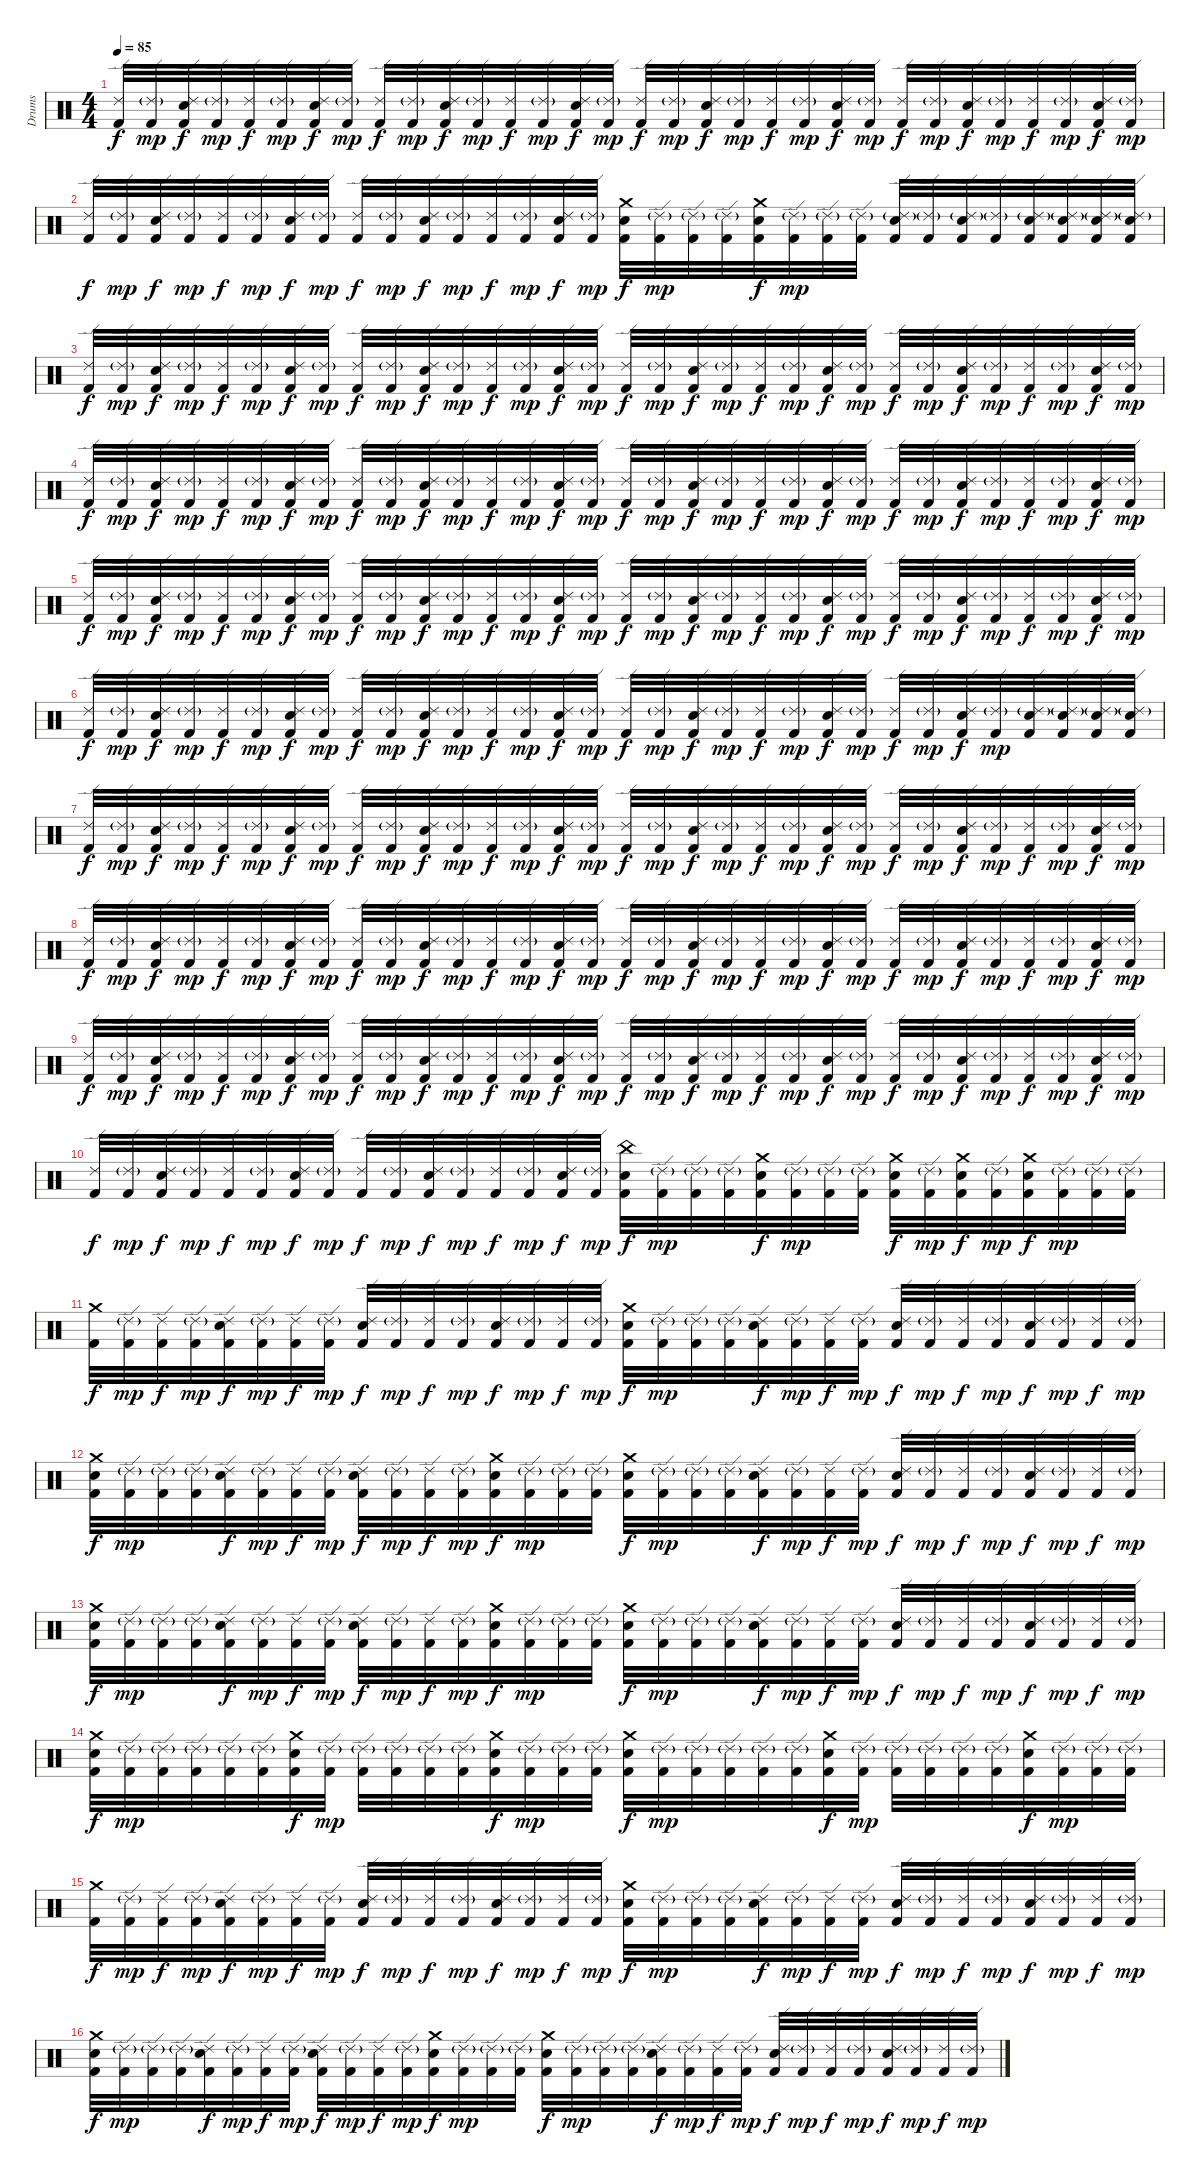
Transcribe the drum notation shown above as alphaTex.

\track ("Drums" "Drums") {instrument percussion}
\staff {score}
\articulation defaults
\ts (4 4)
\tempo 85
\clef neutral
\ks c
("Ride (edge) 2" "Kick (hit) 2").32{dy f} ("Ride (edge) 2"{g} "Kick (hit) 2").32{dy mp} ("Snare (hit) 2" "Ride (edge) 2" "Kick (hit) 2").32{dy f} ("Ride (edge) 2"{g} "Kick (hit) 2").32{dy mp} ("Ride (edge) 2" "Kick (hit) 2").32{dy f} ("Ride (edge) 2"{g} "Kick (hit) 2").32{dy mp} ("Snare (hit) 2" "Ride (edge) 2" "Kick (hit) 2").32{dy f} ("Ride (edge) 2"{g} "Kick (hit) 2").32{dy mp} ("Ride (edge) 2" "Kick (hit) 2").32{dy f} ("Ride (edge) 2"{g} "Kick (hit) 2").32{dy mp} ("Snare (hit) 2" "Ride (edge) 2" "Kick (hit) 2").32{dy f} ("Ride (edge) 2"{g} "Kick (hit) 2").32{dy mp} ("Ride (edge) 2" "Kick (hit) 2").32{dy f} ("Ride (edge) 2"{g} "Kick (hit) 2").32{dy mp} ("Snare (hit) 2" "Ride (edge) 2" "Kick (hit) 2").32{dy f} ("Ride (edge) 2"{g} "Kick (hit) 2").32{dy mp} ("Ride (edge) 2" "Kick (hit) 2").32{dy f} ("Ride (edge) 2"{g} "Kick (hit) 2").32{dy mp} ("Snare (hit) 2" "Ride (edge) 2" "Kick (hit) 2").32{dy f} ("Ride (edge) 2"{g} "Kick (hit) 2").32{dy mp} ("Ride (edge) 2" "Kick (hit) 2").32{dy f} ("Ride (edge) 2"{g} "Kick (hit) 2").32{dy mp} ("Snare (hit) 2" "Ride (edge) 2" "Kick (hit) 2").32{dy f} ("Ride (edge) 2"{g} "Kick (hit) 2").32{dy mp} ("Ride (edge) 2" "Kick (hit) 2").32{dy f} ("Ride (edge) 2"{g} "Kick (hit) 2").32{dy mp} ("Snare (hit) 2" "Ride (edge) 2" "Kick (hit) 2").32{dy f} ("Ride (edge) 2"{g} "Kick (hit) 2").32{dy mp} ("Ride (edge) 2" "Kick (hit) 2").32{dy f} ("Ride (edge) 2"{g} "Kick (hit) 2").32{dy mp} ("Snare (hit) 2" "Ride (edge) 2" "Kick (hit) 2").32{dy f} ("Ride (edge) 2"{g} "Kick (hit) 2").32{dy mp} |
("Ride (edge) 2" "Kick (hit) 2").32{dy f} ("Ride (edge) 2"{g} "Kick (hit) 2").32{dy mp} ("Snare (hit) 2" "Ride (edge) 2" "Kick (hit) 2").32{dy f} ("Ride (edge) 2"{g} "Kick (hit) 2").32{dy mp} ("Ride (edge) 2" "Kick (hit) 2").32{dy f} ("Ride (edge) 2"{g} "Kick (hit) 2").32{dy mp} ("Snare (hit) 2" "Ride (edge) 2" "Kick (hit) 2").32{dy f} ("Ride (edge) 2"{g} "Kick (hit) 2").32{dy mp} ("Ride (edge) 2" "Kick (hit) 2").32{dy f} ("Ride (edge) 2"{g} "Kick (hit) 2").32{dy mp} ("Snare (hit) 2" "Ride (edge) 2" "Kick (hit) 2").32{dy f} ("Ride (edge) 2"{g} "Kick (hit) 2").32{dy mp} ("Ride (edge) 2" "Kick (hit) 2").32{dy f} ("Ride (edge) 2"{g} "Kick (hit) 2").32{dy mp} ("Snare (hit) 2" "Ride (edge) 2" "Kick (hit) 2").32{dy f} ("Ride (edge) 2"{g} "Kick (hit) 2").32{dy mp} ("Snare (hit) 2" "Crash medium (hit)" "Kick (hit) 2").32{dy f} ("Ride (edge) 2"{g} "Kick (hit) 2").32{dy mp} ("Ride (edge) 2"{g} "Kick (hit) 2").32 ("Ride (edge) 2"{g} "Kick (hit) 2").32 ("Snare (hit) 2" "Crash medium (hit)" "Kick (hit) 2").32{dy f} ("Ride (edge) 2"{g} "Kick (hit) 2").32{dy mp} ("Ride (edge) 2"{g} "Kick (hit) 2").32 ("Ride (edge) 2"{g} "Kick (hit) 2").32 ("Snare (hit) 2" "Ride (edge) 2"{g} "Kick (hit) 2").32 ("Ride (edge) 2"{g} "Kick (hit) 2").32 ("Snare (hit) 2" "Ride (edge) 2"{g} "Kick (hit) 2").32 ("Ride (edge) 2"{g} "Kick (hit) 2").32 ("Snare (hit) 2" "Ride (edge) 2"{g} "Kick (hit) 2").32 ("Snare (hit) 2" "Ride (edge) 2"{g} "Kick (hit) 2").32 ("Snare (hit) 2" "Ride (edge) 2"{g} "Kick (hit) 2").32 ("Snare (hit) 2" "Ride (edge) 2"{g} "Kick (hit) 2").32 |
("Ride (edge) 2" "Kick (hit) 2").32{dy f} ("Ride (edge) 2"{g} "Kick (hit) 2").32{dy mp} ("Snare (hit) 2" "Ride (edge) 2" "Kick (hit) 2").32{dy f} ("Ride (edge) 2"{g} "Kick (hit) 2").32{dy mp} ("Ride (edge) 2" "Kick (hit) 2").32{dy f} ("Ride (edge) 2"{g} "Kick (hit) 2").32{dy mp} ("Snare (hit) 2" "Ride (edge) 2" "Kick (hit) 2").32{dy f} ("Ride (edge) 2"{g} "Kick (hit) 2").32{dy mp} ("Ride (edge) 2" "Kick (hit) 2").32{dy f} ("Ride (edge) 2"{g} "Kick (hit) 2").32{dy mp} ("Snare (hit) 2" "Ride (edge) 2" "Kick (hit) 2").32{dy f} ("Ride (edge) 2"{g} "Kick (hit) 2").32{dy mp} ("Ride (edge) 2" "Kick (hit) 2").32{dy f} ("Ride (edge) 2"{g} "Kick (hit) 2").32{dy mp} ("Snare (hit) 2" "Ride (edge) 2" "Kick (hit) 2").32{dy f} ("Ride (edge) 2"{g} "Kick (hit) 2").32{dy mp} ("Ride (edge) 2" "Kick (hit) 2").32{dy f} ("Ride (edge) 2"{g} "Kick (hit) 2").32{dy mp} ("Snare (hit) 2" "Ride (edge) 2" "Kick (hit) 2").32{dy f} ("Ride (edge) 2"{g} "Kick (hit) 2").32{dy mp} ("Ride (edge) 2" "Kick (hit) 2").32{dy f} ("Ride (edge) 2"{g} "Kick (hit) 2").32{dy mp} ("Snare (hit) 2" "Ride (edge) 2" "Kick (hit) 2").32{dy f} ("Ride (edge) 2"{g} "Kick (hit) 2").32{dy mp} ("Ride (edge) 2" "Kick (hit) 2").32{dy f} ("Ride (edge) 2"{g} "Kick (hit) 2").32{dy mp} ("Snare (hit) 2" "Ride (edge) 2" "Kick (hit) 2").32{dy f} ("Ride (edge) 2"{g} "Kick (hit) 2").32{dy mp} ("Ride (edge) 2" "Kick (hit) 2").32{dy f} ("Ride (edge) 2"{g} "Kick (hit) 2").32{dy mp} ("Snare (hit) 2" "Ride (edge) 2" "Kick (hit) 2").32{dy f} ("Ride (edge) 2"{g} "Kick (hit) 2").32{dy mp} |
("Ride (edge) 2" "Kick (hit) 2").32{dy f} ("Ride (edge) 2"{g} "Kick (hit) 2").32{dy mp} ("Snare (hit) 2" "Ride (edge) 2" "Kick (hit) 2").32{dy f} ("Ride (edge) 2"{g} "Kick (hit) 2").32{dy mp} ("Ride (edge) 2" "Kick (hit) 2").32{dy f} ("Ride (edge) 2"{g} "Kick (hit) 2").32{dy mp} ("Snare (hit) 2" "Ride (edge) 2" "Kick (hit) 2").32{dy f} ("Ride (edge) 2"{g} "Kick (hit) 2").32{dy mp} ("Ride (edge) 2" "Kick (hit) 2").32{dy f} ("Ride (edge) 2"{g} "Kick (hit) 2").32{dy mp} ("Snare (hit) 2" "Ride (edge) 2" "Kick (hit) 2").32{dy f} ("Ride (edge) 2"{g} "Kick (hit) 2").32{dy mp} ("Ride (edge) 2" "Kick (hit) 2").32{dy f} ("Ride (edge) 2"{g} "Kick (hit) 2").32{dy mp} ("Snare (hit) 2" "Ride (edge) 2" "Kick (hit) 2").32{dy f} ("Ride (edge) 2"{g} "Kick (hit) 2").32{dy mp} ("Ride (edge) 2" "Kick (hit) 2").32{dy f} ("Ride (edge) 2"{g} "Kick (hit) 2").32{dy mp} ("Snare (hit) 2" "Ride (edge) 2" "Kick (hit) 2").32{dy f} ("Ride (edge) 2"{g} "Kick (hit) 2").32{dy mp} ("Ride (edge) 2" "Kick (hit) 2").32{dy f} ("Ride (edge) 2"{g} "Kick (hit) 2").32{dy mp} ("Snare (hit) 2" "Ride (edge) 2" "Kick (hit) 2").32{dy f} ("Ride (edge) 2"{g} "Kick (hit) 2").32{dy mp} ("Ride (edge) 2" "Kick (hit) 2").32{dy f} ("Ride (edge) 2"{g} "Kick (hit) 2").32{dy mp} ("Snare (hit) 2" "Ride (edge) 2" "Kick (hit) 2").32{dy f} ("Ride (edge) 2"{g} "Kick (hit) 2").32{dy mp} ("Ride (edge) 2" "Kick (hit) 2").32{dy f} ("Ride (edge) 2"{g} "Kick (hit) 2").32{dy mp} ("Snare (hit) 2" "Ride (edge) 2" "Kick (hit) 2").32{dy f} ("Ride (edge) 2"{g} "Kick (hit) 2").32{dy mp} |
("Ride (edge) 2" "Kick (hit) 2").32{dy f} ("Ride (edge) 2"{g} "Kick (hit) 2").32{dy mp} ("Snare (hit) 2" "Ride (edge) 2" "Kick (hit) 2").32{dy f} ("Ride (edge) 2"{g} "Kick (hit) 2").32{dy mp} ("Ride (edge) 2" "Kick (hit) 2").32{dy f} ("Ride (edge) 2"{g} "Kick (hit) 2").32{dy mp} ("Snare (hit) 2" "Ride (edge) 2" "Kick (hit) 2").32{dy f} ("Ride (edge) 2"{g} "Kick (hit) 2").32{dy mp} ("Ride (edge) 2" "Kick (hit) 2").32{dy f} ("Ride (edge) 2"{g} "Kick (hit) 2").32{dy mp} ("Snare (hit) 2" "Ride (edge) 2" "Kick (hit) 2").32{dy f} ("Ride (edge) 2"{g} "Kick (hit) 2").32{dy mp} ("Ride (edge) 2" "Kick (hit) 2").32{dy f} ("Ride (edge) 2"{g} "Kick (hit) 2").32{dy mp} ("Snare (hit) 2" "Ride (edge) 2" "Kick (hit) 2").32{dy f} ("Ride (edge) 2"{g} "Kick (hit) 2").32{dy mp} ("Ride (edge) 2" "Kick (hit) 2").32{dy f} ("Ride (edge) 2"{g} "Kick (hit) 2").32{dy mp} ("Snare (hit) 2" "Ride (edge) 2" "Kick (hit) 2").32{dy f} ("Ride (edge) 2"{g} "Kick (hit) 2").32{dy mp} ("Ride (edge) 2" "Kick (hit) 2").32{dy f} ("Ride (edge) 2"{g} "Kick (hit) 2").32{dy mp} ("Snare (hit) 2" "Ride (edge) 2" "Kick (hit) 2").32{dy f} ("Ride (edge) 2"{g} "Kick (hit) 2").32{dy mp} ("Ride (edge) 2" "Kick (hit) 2").32{dy f} ("Ride (edge) 2"{g} "Kick (hit) 2").32{dy mp} ("Snare (hit) 2" "Ride (edge) 2" "Kick (hit) 2").32{dy f} ("Ride (edge) 2"{g} "Kick (hit) 2").32{dy mp} ("Ride (edge) 2" "Kick (hit) 2").32{dy f} ("Ride (edge) 2"{g} "Kick (hit) 2").32{dy mp} ("Snare (hit) 2" "Ride (edge) 2" "Kick (hit) 2").32{dy f} ("Ride (edge) 2"{g} "Kick (hit) 2").32{dy mp} |
("Ride (edge) 2" "Kick (hit) 2").32{dy f} ("Ride (edge) 2"{g} "Kick (hit) 2").32{dy mp} ("Snare (hit) 2" "Ride (edge) 2" "Kick (hit) 2").32{dy f} ("Ride (edge) 2"{g} "Kick (hit) 2").32{dy mp} ("Ride (edge) 2" "Kick (hit) 2").32{dy f} ("Ride (edge) 2"{g} "Kick (hit) 2").32{dy mp} ("Snare (hit) 2" "Ride (edge) 2" "Kick (hit) 2").32{dy f} ("Ride (edge) 2"{g} "Kick (hit) 2").32{dy mp} ("Ride (edge) 2" "Kick (hit) 2").32{dy f} ("Ride (edge) 2"{g} "Kick (hit) 2").32{dy mp} ("Snare (hit) 2" "Ride (edge) 2" "Kick (hit) 2").32{dy f} ("Ride (edge) 2"{g} "Kick (hit) 2").32{dy mp} ("Ride (edge) 2" "Kick (hit) 2").32{dy f} ("Ride (edge) 2"{g} "Kick (hit) 2").32{dy mp} ("Snare (hit) 2" "Ride (edge) 2" "Kick (hit) 2").32{dy f} ("Ride (edge) 2"{g} "Kick (hit) 2").32{dy mp} ("Ride (edge) 2" "Kick (hit) 2").32{dy f} ("Ride (edge) 2"{g} "Kick (hit) 2").32{dy mp} ("Snare (hit) 2" "Ride (edge) 2" "Kick (hit) 2").32{dy f} ("Ride (edge) 2"{g} "Kick (hit) 2").32{dy mp} ("Ride (edge) 2" "Kick (hit) 2").32{dy f} ("Ride (edge) 2"{g} "Kick (hit) 2").32{dy mp} ("Snare (hit) 2" "Ride (edge) 2" "Kick (hit) 2").32{dy f} ("Ride (edge) 2"{g} "Kick (hit) 2").32{dy mp} ("Ride (edge) 2" "Kick (hit) 2").32{dy f} ("Ride (edge) 2"{g} "Kick (hit) 2").32{dy mp} ("Snare (hit) 2" "Ride (edge) 2" "Kick (hit) 2").32{dy f} ("Ride (edge) 2"{g} "Kick (hit) 2").32{dy mp} ("Snare (hit) 2" "Ride (edge) 2"{g} "Kick (hit) 2").32 ("Snare (hit) 2" "Ride (edge) 2"{g} "Kick (hit) 2").32 ("Snare (hit) 2" "Ride (edge) 2"{g} "Kick (hit) 2").32 ("Snare (hit) 2" "Ride (edge) 2"{g} "Kick (hit) 2").32 |
("Ride (edge) 2" "Kick (hit) 2").32{dy f} ("Ride (edge) 2"{g} "Kick (hit) 2").32{dy mp} ("Snare (hit) 2" "Ride (edge) 2" "Kick (hit) 2").32{dy f} ("Ride (edge) 2"{g} "Kick (hit) 2").32{dy mp} ("Ride (edge) 2" "Kick (hit) 2").32{dy f} ("Ride (edge) 2"{g} "Kick (hit) 2").32{dy mp} ("Snare (hit) 2" "Ride (edge) 2" "Kick (hit) 2").32{dy f} ("Ride (edge) 2"{g} "Kick (hit) 2").32{dy mp} ("Ride (edge) 2" "Kick (hit) 2").32{dy f} ("Ride (edge) 2"{g} "Kick (hit) 2").32{dy mp} ("Snare (hit) 2" "Ride (edge) 2" "Kick (hit) 2").32{dy f} ("Ride (edge) 2"{g} "Kick (hit) 2").32{dy mp} ("Ride (edge) 2" "Kick (hit) 2").32{dy f} ("Ride (edge) 2"{g} "Kick (hit) 2").32{dy mp} ("Snare (hit) 2" "Ride (edge) 2" "Kick (hit) 2").32{dy f} ("Ride (edge) 2"{g} "Kick (hit) 2").32{dy mp} ("Ride (edge) 2" "Kick (hit) 2").32{dy f} ("Ride (edge) 2"{g} "Kick (hit) 2").32{dy mp} ("Snare (hit) 2" "Ride (edge) 2" "Kick (hit) 2").32{dy f} ("Ride (edge) 2"{g} "Kick (hit) 2").32{dy mp} ("Ride (edge) 2" "Kick (hit) 2").32{dy f} ("Ride (edge) 2"{g} "Kick (hit) 2").32{dy mp} ("Snare (hit) 2" "Ride (edge) 2" "Kick (hit) 2").32{dy f} ("Ride (edge) 2"{g} "Kick (hit) 2").32{dy mp} ("Ride (edge) 2" "Kick (hit) 2").32{dy f} ("Ride (edge) 2"{g} "Kick (hit) 2").32{dy mp} ("Snare (hit) 2" "Ride (edge) 2" "Kick (hit) 2").32{dy f} ("Ride (edge) 2"{g} "Kick (hit) 2").32{dy mp} ("Ride (edge) 2" "Kick (hit) 2").32{dy f} ("Ride (edge) 2"{g} "Kick (hit) 2").32{dy mp} ("Snare (hit) 2" "Ride (edge) 2" "Kick (hit) 2").32{dy f} ("Ride (edge) 2"{g} "Kick (hit) 2").32{dy mp} |
("Ride (edge) 2" "Kick (hit) 2").32{dy f} ("Ride (edge) 2"{g} "Kick (hit) 2").32{dy mp} ("Snare (hit) 2" "Ride (edge) 2" "Kick (hit) 2").32{dy f} ("Ride (edge) 2"{g} "Kick (hit) 2").32{dy mp} ("Ride (edge) 2" "Kick (hit) 2").32{dy f} ("Ride (edge) 2"{g} "Kick (hit) 2").32{dy mp} ("Snare (hit) 2" "Ride (edge) 2" "Kick (hit) 2").32{dy f} ("Ride (edge) 2"{g} "Kick (hit) 2").32{dy mp} ("Ride (edge) 2" "Kick (hit) 2").32{dy f} ("Ride (edge) 2"{g} "Kick (hit) 2").32{dy mp} ("Snare (hit) 2" "Ride (edge) 2" "Kick (hit) 2").32{dy f} ("Ride (edge) 2"{g} "Kick (hit) 2").32{dy mp} ("Ride (edge) 2" "Kick (hit) 2").32{dy f} ("Ride (edge) 2"{g} "Kick (hit) 2").32{dy mp} ("Snare (hit) 2" "Ride (edge) 2" "Kick (hit) 2").32{dy f} ("Ride (edge) 2"{g} "Kick (hit) 2").32{dy mp} ("Ride (edge) 2" "Kick (hit) 2").32{dy f} ("Ride (edge) 2"{g} "Kick (hit) 2").32{dy mp} ("Snare (hit) 2" "Ride (edge) 2" "Kick (hit) 2").32{dy f} ("Ride (edge) 2"{g} "Kick (hit) 2").32{dy mp} ("Ride (edge) 2" "Kick (hit) 2").32{dy f} ("Ride (edge) 2"{g} "Kick (hit) 2").32{dy mp} ("Snare (hit) 2" "Ride (edge) 2" "Kick (hit) 2").32{dy f} ("Ride (edge) 2"{g} "Kick (hit) 2").32{dy mp} ("Ride (edge) 2" "Kick (hit) 2").32{dy f} ("Ride (edge) 2"{g} "Kick (hit) 2").32{dy mp} ("Snare (hit) 2" "Ride (edge) 2" "Kick (hit) 2").32{dy f} ("Ride (edge) 2"{g} "Kick (hit) 2").32{dy mp} ("Ride (edge) 2" "Kick (hit) 2").32{dy f} ("Ride (edge) 2"{g} "Kick (hit) 2").32{dy mp} ("Snare (hit) 2" "Ride (edge) 2" "Kick (hit) 2").32{dy f} ("Ride (edge) 2"{g} "Kick (hit) 2").32{dy mp} |
("Ride (edge) 2" "Kick (hit) 2").32{dy f} ("Ride (edge) 2"{g} "Kick (hit) 2").32{dy mp} ("Snare (hit) 2" "Ride (edge) 2" "Kick (hit) 2").32{dy f} ("Ride (edge) 2"{g} "Kick (hit) 2").32{dy mp} ("Ride (edge) 2" "Kick (hit) 2").32{dy f} ("Ride (edge) 2"{g} "Kick (hit) 2").32{dy mp} ("Snare (hit) 2" "Ride (edge) 2" "Kick (hit) 2").32{dy f} ("Ride (edge) 2"{g} "Kick (hit) 2").32{dy mp} ("Ride (edge) 2" "Kick (hit) 2").32{dy f} ("Ride (edge) 2"{g} "Kick (hit) 2").32{dy mp} ("Snare (hit) 2" "Ride (edge) 2" "Kick (hit) 2").32{dy f} ("Ride (edge) 2"{g} "Kick (hit) 2").32{dy mp} ("Ride (edge) 2" "Kick (hit) 2").32{dy f} ("Ride (edge) 2"{g} "Kick (hit) 2").32{dy mp} ("Snare (hit) 2" "Ride (edge) 2" "Kick (hit) 2").32{dy f} ("Ride (edge) 2"{g} "Kick (hit) 2").32{dy mp} ("Ride (edge) 2" "Kick (hit) 2").32{dy f} ("Ride (edge) 2"{g} "Kick (hit) 2").32{dy mp} ("Snare (hit) 2" "Ride (edge) 2" "Kick (hit) 2").32{dy f} ("Ride (edge) 2"{g} "Kick (hit) 2").32{dy mp} ("Ride (edge) 2" "Kick (hit) 2").32{dy f} ("Ride (edge) 2"{g} "Kick (hit) 2").32{dy mp} ("Snare (hit) 2" "Ride (edge) 2" "Kick (hit) 2").32{dy f} ("Ride (edge) 2"{g} "Kick (hit) 2").32{dy mp} ("Ride (edge) 2" "Kick (hit) 2").32{dy f} ("Ride (edge) 2"{g} "Kick (hit) 2").32{dy mp} ("Snare (hit) 2" "Ride (edge) 2" "Kick (hit) 2").32{dy f} ("Ride (edge) 2"{g} "Kick (hit) 2").32{dy mp} ("Ride (edge) 2" "Kick (hit) 2").32{dy f} ("Ride (edge) 2"{g} "Kick (hit) 2").32{dy mp} ("Snare (hit) 2" "Ride (edge) 2" "Kick (hit) 2").32{dy f} ("Ride (edge) 2"{g} "Kick (hit) 2").32{dy mp} |
("Ride (edge) 2" "Kick (hit) 2").32{dy f} ("Ride (edge) 2"{g} "Kick (hit) 2").32{dy mp} ("Snare (hit) 2" "Ride (edge) 2" "Kick (hit) 2").32{dy f} ("Ride (edge) 2"{g} "Kick (hit) 2").32{dy mp} ("Ride (edge) 2" "Kick (hit) 2").32{dy f} ("Ride (edge) 2"{g} "Kick (hit) 2").32{dy mp} ("Snare (hit) 2" "Ride (edge) 2" "Kick (hit) 2").32{dy f} ("Ride (edge) 2"{g} "Kick (hit) 2").32{dy mp} ("Ride (edge) 2" "Kick (hit) 2").32{dy f} ("Ride (edge) 2"{g} "Kick (hit) 2").32{dy mp} ("Snare (hit) 2" "Ride (edge) 2" "Kick (hit) 2").32{dy f} ("Ride (edge) 2"{g} "Kick (hit) 2").32{dy mp} ("Ride (edge) 2" "Kick (hit) 2").32{dy f} ("Ride (edge) 2"{g} "Kick (hit) 2").32{dy mp} ("Snare (hit) 2" "Ride (edge) 2" "Kick (hit) 2").32{dy f} ("Ride (edge) 2"{g} "Kick (hit) 2").32{dy mp} ("Snare (hit) 2" "China (hit)" "Kick (hit) 2").32{dy f} ("Ride (edge) 2"{g} "Kick (hit) 2").32{dy mp} ("Ride (edge) 2"{g} "Kick (hit) 2").32 ("Ride (edge) 2"{g} "Kick (hit) 2").32 ("Snare (hit) 2" "Crash medium (hit)" "Kick (hit) 2").32{dy f} ("Ride (edge) 2"{g} "Kick (hit) 2").32{dy mp} ("Ride (edge) 2"{g} "Kick (hit) 2").32 ("Ride (edge) 2"{g} "Kick (hit) 2").32 ("Snare (hit) 2" "Crash medium (hit)" "Kick (hit) 2").32{dy f} ("Ride (edge) 2"{g} "Kick (hit) 2").32{dy mp} ("Snare (hit) 2" "Crash medium (hit)" "Kick (hit) 2").32{dy f} ("Ride (edge) 2"{g} "Kick (hit) 2").32{dy mp} ("Snare (hit) 2" "Crash medium (hit)" "Kick (hit) 2").32{dy f} ("Ride (edge) 2"{g} "Kick (hit) 2").32{dy mp} ("Ride (edge) 2"{g} "Kick (hit) 2").32 ("Ride (edge) 2"{g} "Kick (hit) 2").32 |
("Crash medium (hit)" "Kick (hit) 2").32{dy f} ("Ride (edge) 2"{g} "Kick (hit) 2").32{dy mp} ("Ride (edge) 2" "Kick (hit) 2").32{dy f} ("Ride (edge) 2"{g} "Kick (hit) 2").32{dy mp} ("Snare (hit) 2" "Ride (edge) 2" "Kick (hit) 2").32{dy f} ("Ride (edge) 2"{g} "Kick (hit) 2").32{dy mp} ("Ride (edge) 2" "Kick (hit) 2").32{dy f} ("Ride (edge) 2"{g} "Kick (hit) 2").32{dy mp} ("Snare (hit) 2" "Ride (edge) 2" "Kick (hit) 2").32{dy f} ("Ride (edge) 2"{g} "Kick (hit) 2").32{dy mp} ("Ride (edge) 2" "Kick (hit) 2").32{dy f} ("Ride (edge) 2"{g} "Kick (hit) 2").32{dy mp} ("Snare (hit) 2" "Ride (edge) 2" "Kick (hit) 2").32{dy f} ("Ride (edge) 2"{g} "Kick (hit) 2").32{dy mp} ("Ride (edge) 2" "Kick (hit) 2").32{dy f} ("Ride (edge) 2"{g} "Kick (hit) 2").32{dy mp} ("Snare (hit) 2" "Crash medium (hit)" "Kick (hit) 2").32{dy f} ("Ride (edge) 2"{g} "Kick (hit) 2").32{dy mp} ("Ride (edge) 2"{g} "Kick (hit) 2").32 ("Ride (edge) 2"{g} "Kick (hit) 2").32 ("Snare (hit) 2" "Ride (edge) 2" "Kick (hit) 2").32{dy f} ("Ride (edge) 2"{g} "Kick (hit) 2").32{dy mp} ("Ride (edge) 2" "Kick (hit) 2").32{dy f} ("Ride (edge) 2"{g} "Kick (hit) 2").32{dy mp} ("Snare (hit) 2" "Ride (edge) 2" "Kick (hit) 2").32{dy f} ("Ride (edge) 2"{g} "Kick (hit) 2").32{dy mp} ("Ride (edge) 2" "Kick (hit) 2").32{dy f} ("Ride (edge) 2"{g} "Kick (hit) 2").32{dy mp} ("Snare (hit) 2" "Ride (edge) 2" "Kick (hit) 2").32{dy f} ("Ride (edge) 2"{g} "Kick (hit) 2").32{dy mp} ("Ride (edge) 2" "Kick (hit) 2").32{dy f} ("Ride (edge) 2"{g} "Kick (hit) 2").32{dy mp} |
("Snare (hit) 2" "Crash medium (hit)" "Kick (hit) 2").32{dy f} ("Ride (edge) 2"{g} "Kick (hit) 2").32{dy mp} ("Ride (edge) 2"{g} "Kick (hit) 2").32 ("Ride (edge) 2"{g} "Kick (hit) 2").32 ("Snare (hit) 2" "Ride (edge) 2" "Kick (hit) 2").32{dy f} ("Ride (edge) 2"{g} "Kick (hit) 2").32{dy mp} ("Ride (edge) 2" "Kick (hit) 2").32{dy f} ("Ride (edge) 2"{g} "Kick (hit) 2").32{dy mp} ("Snare (hit) 2" "Ride (edge) 2" "Kick (hit) 2").32{dy f} ("Ride (edge) 2"{g} "Kick (hit) 2").32{dy mp} ("Ride (edge) 2" "Kick (hit) 2").32{dy f} ("Ride (edge) 2"{g} "Kick (hit) 2").32{dy mp} ("Snare (hit) 2" "Crash medium (hit)" "Kick (hit) 2").32{dy f} ("Ride (edge) 2"{g} "Kick (hit) 2").32{dy mp} ("Ride (edge) 2"{g} "Kick (hit) 2").32 ("Ride (edge) 2"{g} "Kick (hit) 2").32 ("Snare (hit) 2" "Crash medium (hit)" "Kick (hit) 2").32{dy f} ("Ride (edge) 2"{g} "Kick (hit) 2").32{dy mp} ("Ride (edge) 2"{g} "Kick (hit) 2").32 ("Ride (edge) 2"{g} "Kick (hit) 2").32 ("Snare (hit) 2" "Ride (edge) 2" "Kick (hit) 2").32{dy f} ("Ride (edge) 2"{g} "Kick (hit) 2").32{dy mp} ("Ride (edge) 2" "Kick (hit) 2").32{dy f} ("Ride (edge) 2"{g} "Kick (hit) 2").32{dy mp} ("Snare (hit) 2" "Ride (edge) 2" "Kick (hit) 2").32{dy f} ("Ride (edge) 2"{g} "Kick (hit) 2").32{dy mp} ("Ride (edge) 2" "Kick (hit) 2").32{dy f} ("Ride (edge) 2"{g} "Kick (hit) 2").32{dy mp} ("Snare (hit) 2" "Ride (edge) 2" "Kick (hit) 2").32{dy f} ("Ride (edge) 2"{g} "Kick (hit) 2").32{dy mp} ("Ride (edge) 2" "Kick (hit) 2").32{dy f} ("Ride (edge) 2"{g} "Kick (hit) 2").32{dy mp} |
("Snare (hit) 2" "Crash medium (hit)" "Kick (hit) 2").32{dy f} ("Ride (edge) 2"{g} "Kick (hit) 2").32{dy mp} ("Ride (edge) 2"{g} "Kick (hit) 2").32 ("Ride (edge) 2"{g} "Kick (hit) 2").32 ("Snare (hit) 2" "Ride (edge) 2" "Kick (hit) 2").32{dy f} ("Ride (edge) 2"{g} "Kick (hit) 2").32{dy mp} ("Ride (edge) 2" "Kick (hit) 2").32{dy f} ("Ride (edge) 2"{g} "Kick (hit) 2").32{dy mp} ("Snare (hit) 2" "Ride (edge) 2" "Kick (hit) 2").32{dy f} ("Ride (edge) 2"{g} "Kick (hit) 2").32{dy mp} ("Ride (edge) 2" "Kick (hit) 2").32{dy f} ("Ride (edge) 2"{g} "Kick (hit) 2").32{dy mp} ("Snare (hit) 2" "Crash medium (hit)" "Kick (hit) 2").32{dy f} ("Ride (edge) 2"{g} "Kick (hit) 2").32{dy mp} ("Ride (edge) 2"{g} "Kick (hit) 2").32 ("Ride (edge) 2"{g} "Kick (hit) 2").32 ("Snare (hit) 2" "Crash medium (hit)" "Kick (hit) 2").32{dy f} ("Ride (edge) 2"{g} "Kick (hit) 2").32{dy mp} ("Ride (edge) 2"{g} "Kick (hit) 2").32 ("Ride (edge) 2"{g} "Kick (hit) 2").32 ("Snare (hit) 2" "Ride (edge) 2" "Kick (hit) 2").32{dy f} ("Ride (edge) 2"{g} "Kick (hit) 2").32{dy mp} ("Ride (edge) 2" "Kick (hit) 2").32{dy f} ("Ride (edge) 2"{g} "Kick (hit) 2").32{dy mp} ("Snare (hit) 2" "Ride (edge) 2" "Kick (hit) 2").32{dy f} ("Ride (edge) 2"{g} "Kick (hit) 2").32{dy mp} ("Ride (edge) 2" "Kick (hit) 2").32{dy f} ("Ride (edge) 2"{g} "Kick (hit) 2").32{dy mp} ("Snare (hit) 2" "Ride (edge) 2" "Kick (hit) 2").32{dy f} ("Ride (edge) 2"{g} "Kick (hit) 2").32{dy mp} ("Ride (edge) 2" "Kick (hit) 2").32{dy f} ("Ride (edge) 2"{g} "Kick (hit) 2").32{dy mp} |
("Snare (hit) 2" "Crash medium (hit)" "Kick (hit) 2").32{dy f} ("Ride (edge) 2"{g} "Kick (hit) 2").32{dy mp} ("Ride (edge) 2"{g} "Kick (hit) 2").32 ("Ride (edge) 2"{g} "Kick (hit) 2").32 ("Ride (edge) 2"{g} "Kick (hit) 2").32 ("Ride (edge) 2"{g} "Kick (hit) 2").32 ("Snare (hit) 2" "Crash medium (hit)" "Kick (hit) 2").32{dy f} ("Ride (edge) 2"{g} "Kick (hit) 2").32{dy mp} ("Ride (edge) 2"{g} "Kick (hit) 2").32 ("Ride (edge) 2"{g} "Kick (hit) 2").32 ("Ride (edge) 2"{g} "Kick (hit) 2").32 ("Ride (edge) 2"{g} "Kick (hit) 2").32 ("Snare (hit) 2" "Crash medium (hit)" "Kick (hit) 2").32{dy f} ("Ride (edge) 2"{g} "Kick (hit) 2").32{dy mp} ("Ride (edge) 2"{g} "Kick (hit) 2").32 ("Ride (edge) 2"{g} "Kick (hit) 2").32 ("Snare (hit) 2" "Crash medium (hit)" "Kick (hit) 2").32{dy f} ("Ride (edge) 2"{g} "Kick (hit) 2").32{dy mp} ("Ride (edge) 2"{g} "Kick (hit) 2").32 ("Ride (edge) 2"{g} "Kick (hit) 2").32 ("Ride (edge) 2"{g} "Kick (hit) 2").32 ("Ride (edge) 2"{g} "Kick (hit) 2").32 ("Snare (hit) 2" "Crash medium (hit)" "Kick (hit) 2").32{dy f} ("Ride (edge) 2"{g} "Kick (hit) 2").32{dy mp} ("Ride (edge) 2"{g} "Kick (hit) 2").32 ("Ride (edge) 2"{g} "Kick (hit) 2").32 ("Ride (edge) 2"{g} "Kick (hit) 2").32 ("Ride (edge) 2"{g} "Kick (hit) 2").32 ("Snare (hit) 2" "Crash medium (hit)" "Kick (hit) 2").32{dy f} ("Ride (edge) 2"{g} "Kick (hit) 2").32{dy mp} ("Ride (edge) 2"{g} "Kick (hit) 2").32 ("Ride (edge) 2"{g} "Kick (hit) 2").32 |
("Crash medium (hit)" "Kick (hit) 2").32{dy f} ("Ride (edge) 2"{g} "Kick (hit) 2").32{dy mp} ("Ride (edge) 2" "Kick (hit) 2").32{dy f} ("Ride (edge) 2"{g} "Kick (hit) 2").32{dy mp} ("Snare (hit) 2" "Ride (edge) 2" "Kick (hit) 2").32{dy f} ("Ride (edge) 2"{g} "Kick (hit) 2").32{dy mp} ("Ride (edge) 2" "Kick (hit) 2").32{dy f} ("Ride (edge) 2"{g} "Kick (hit) 2").32{dy mp} ("Snare (hit) 2" "Ride (edge) 2" "Kick (hit) 2").32{dy f} ("Ride (edge) 2"{g} "Kick (hit) 2").32{dy mp} ("Ride (edge) 2" "Kick (hit) 2").32{dy f} ("Ride (edge) 2"{g} "Kick (hit) 2").32{dy mp} ("Snare (hit) 2" "Ride (edge) 2" "Kick (hit) 2").32{dy f} ("Ride (edge) 2"{g} "Kick (hit) 2").32{dy mp} ("Ride (edge) 2" "Kick (hit) 2").32{dy f} ("Ride (edge) 2"{g} "Kick (hit) 2").32{dy mp} ("Snare (hit) 2" "Crash medium (hit)" "Kick (hit) 2").32{dy f} ("Ride (edge) 2"{g} "Kick (hit) 2").32{dy mp} ("Ride (edge) 2"{g} "Kick (hit) 2").32 ("Ride (edge) 2"{g} "Kick (hit) 2").32 ("Snare (hit) 2" "Ride (edge) 2" "Kick (hit) 2").32{dy f} ("Ride (edge) 2"{g} "Kick (hit) 2").32{dy mp} ("Ride (edge) 2" "Kick (hit) 2").32{dy f} ("Ride (edge) 2"{g} "Kick (hit) 2").32{dy mp} ("Snare (hit) 2" "Ride (edge) 2" "Kick (hit) 2").32{dy f} ("Ride (edge) 2"{g} "Kick (hit) 2").32{dy mp} ("Ride (edge) 2" "Kick (hit) 2").32{dy f} ("Ride (edge) 2"{g} "Kick (hit) 2").32{dy mp} ("Snare (hit) 2" "Ride (edge) 2" "Kick (hit) 2").32{dy f} ("Ride (edge) 2"{g} "Kick (hit) 2").32{dy mp} ("Ride (edge) 2" "Kick (hit) 2").32{dy f} ("Ride (edge) 2"{g} "Kick (hit) 2").32{dy mp} |
("Snare (hit) 2" "Crash medium (hit)" "Kick (hit) 2").32{dy f} ("Ride (edge) 2"{g} "Kick (hit) 2").32{dy mp} ("Ride (edge) 2"{g} "Kick (hit) 2").32 ("Ride (edge) 2"{g} "Kick (hit) 2").32 ("Snare (hit) 2" "Ride (edge) 2" "Kick (hit) 2").32{dy f} ("Ride (edge) 2"{g} "Kick (hit) 2").32{dy mp} ("Ride (edge) 2" "Kick (hit) 2").32{dy f} ("Ride (edge) 2"{g} "Kick (hit) 2").32{dy mp} ("Snare (hit) 2" "Ride (edge) 2" "Kick (hit) 2").32{dy f} ("Ride (edge) 2"{g} "Kick (hit) 2").32{dy mp} ("Ride (edge) 2" "Kick (hit) 2").32{dy f} ("Ride (edge) 2"{g} "Kick (hit) 2").32{dy mp} ("Snare (hit) 2" "Crash medium (hit)" "Kick (hit) 2").32{dy f} ("Ride (edge) 2"{g} "Kick (hit) 2").32{dy mp} ("Ride (edge) 2"{g} "Kick (hit) 2").32 ("Ride (edge) 2"{g} "Kick (hit) 2").32 ("Snare (hit) 2" "Crash medium (hit)" "Kick (hit) 2").32{dy f} ("Ride (edge) 2"{g} "Kick (hit) 2").32{dy mp} ("Ride (edge) 2"{g} "Kick (hit) 2").32 ("Ride (edge) 2"{g} "Kick (hit) 2").32 ("Snare (hit) 2" "Ride (edge) 2" "Kick (hit) 2").32{dy f} ("Ride (edge) 2"{g} "Kick (hit) 2").32{dy mp} ("Ride (edge) 2" "Kick (hit) 2").32{dy f} ("Ride (edge) 2"{g} "Kick (hit) 2").32{dy mp} ("Snare (hit) 2" "Ride (edge) 2" "Kick (hit) 2").32{dy f} ("Ride (edge) 2"{g} "Kick (hit) 2").32{dy mp} ("Ride (edge) 2" "Kick (hit) 2").32{dy f} ("Ride (edge) 2"{g} "Kick (hit) 2").32{dy mp} ("Snare (hit) 2" "Ride (edge) 2" "Kick (hit) 2").32{dy f} ("Ride (edge) 2"{g} "Kick (hit) 2").32{dy mp} ("Ride (edge) 2" "Kick (hit) 2").32{dy f} ("Ride (edge) 2"{g} "Kick (hit) 2").32{dy mp}
